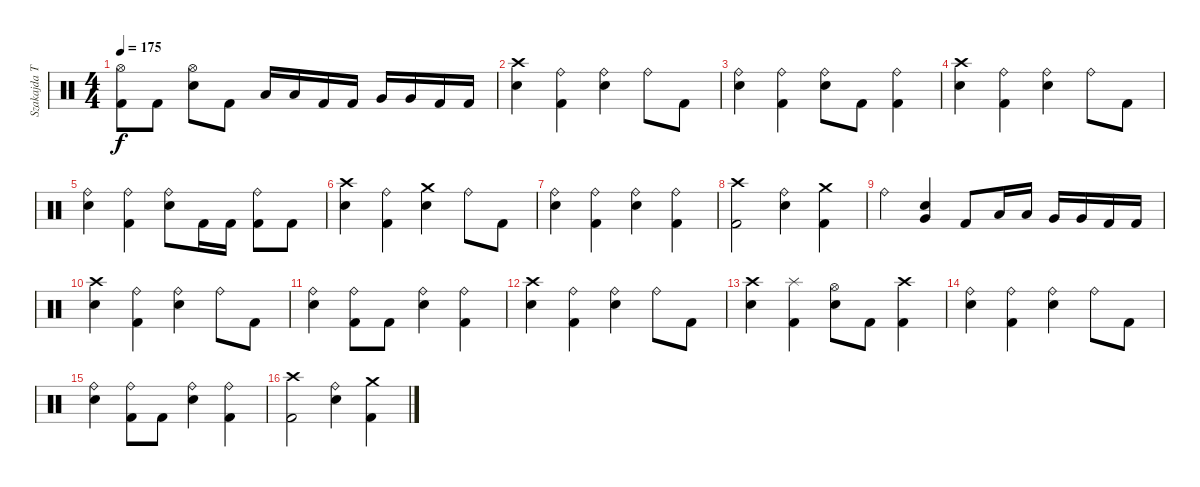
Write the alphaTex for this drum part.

\track ("Szakajda Tibi" "Szakajda T") {instrument percussion}
\staff {score}
\articulation defaults
\ts (4 4)
\tempo 175
\clef neutral
\ks c
("Hi-Hat (open)" "Kick (hit) 2").8{dy f} "Kick (hit) 2".8 ("Hi-Hat (open)" "Snare (hit) 2").8 "Kick (hit) 2".8 "Low Tom (hit)".16 "Low Tom (hit)".16 "Kick (hit) 2".16 "Kick (hit) 2".16 "Very Low Tom (hit)".16 "Very Low Tom (hit)".16 "Kick (hit) 2".16 "Kick (hit) 2".16 |
("Crash high (hit)" "Snare (hit) 2").4 ("Ride (bell)" "Kick (hit) 2").4 ("Ride (bell)" "Snare (hit) 2").4 "Ride (bell)".8 "Kick (hit) 2".8 |
("Ride (bell)" "Snare (hit) 2").4 ("Ride (bell)" "Kick (hit) 2").4 ("Ride (bell)" "Snare (hit) 2").8 "Kick (hit) 2".8 ("Ride (bell)" "Kick (hit) 2").4 |
("Crash high (hit)" "Snare (hit) 2").4 ("Ride (bell)" "Kick (hit) 2").4 ("Ride (bell)" "Snare (hit) 2").4 "Ride (bell)".8 "Kick (hit) 2".8 |
("Ride (bell)" "Snare (hit) 2").4 ("Ride (bell)" "Kick (hit) 2").4 ("Ride (bell)" "Snare (hit) 2").8 "Kick (hit) 2".16 "Kick (hit) 2".16 ("Ride (bell)" "Kick (hit) 2").8 "Kick (hit) 2".8 |
("Crash high (hit)" "Snare (hit) 2").4 ("Ride (bell)" "Kick (hit) 2").4 ("Crash medium (hit)" "Snare (hit) 2").4 "Ride (bell)".8 "Kick (hit) 2".8 |
("Ride (bell)" "Snare (hit) 2").4 ("Ride (bell)" "Kick (hit) 2").4 ("Ride (bell)" "Snare (hit) 2").4 ("Ride (bell)" "Kick (hit) 2").4 |
("Crash high (hit)" "Kick (hit) 2").2 ("Ride (bell)" "Snare (hit) 2").4 ("Crash medium (hit)" "Kick (hit) 2").4 |
"Ride (bell)".4 ("Very Low Tom (hit)" "Snare (hit) 2").4 "Kick (hit) 2".8 "Low Tom (hit)".16 "Low Tom (hit)".16 "Very Low Tom (hit)".16 "Very Low Tom (hit)".16 "Kick (hit) 2".16 "Kick (hit) 2".16 |
("Crash high (hit)" "Snare (hit) 2").4 ("Ride (bell)" "Kick (hit) 2").4 ("Ride (bell)" "Snare (hit) 2").4 "Ride (bell)".8 "Kick (hit) 2".8 |
("Ride (bell)" "Snare (hit) 2").4 ("Ride (bell)" "Kick (hit) 2").8 "Kick (hit) 2".8 ("Ride (bell)" "Snare (hit) 2").4 ("Ride (bell)" "Kick (hit) 2").4 |
("Crash high (hit)" "Snare (hit) 2").4 ("Ride (bell)" "Kick (hit) 2").4 ("Ride (bell)" "Snare (hit) 2").4 "Ride (bell)".8 "Kick (hit) 2".8 |
("Crash high (hit)" "Snare (hit) 2").4 ("Splash (hit)" "Kick (hit) 2").4 ("Hi-Hat (open)" "Snare (hit) 2").8 "Kick (hit) 2".8 ("Crash high (hit)" "Kick (hit) 2").4 |
("Ride (bell)" "Snare (hit) 2").4 ("Ride (bell)" "Kick (hit) 2").4 ("Ride (bell)" "Snare (hit) 2").4 "Ride (bell)".8 "Kick (hit) 2".8 |
("Ride (bell)" "Snare (hit) 2").4 ("Ride (bell)" "Kick (hit) 2").8 "Kick (hit) 2".8 ("Ride (bell)" "Snare (hit) 2").4 ("Ride (bell)" "Kick (hit) 2").4 |
("Crash high (hit)" "Kick (hit) 2").2 ("Ride (bell)" "Snare (hit) 2").4 ("Crash medium (hit)" "Kick (hit) 2").4
